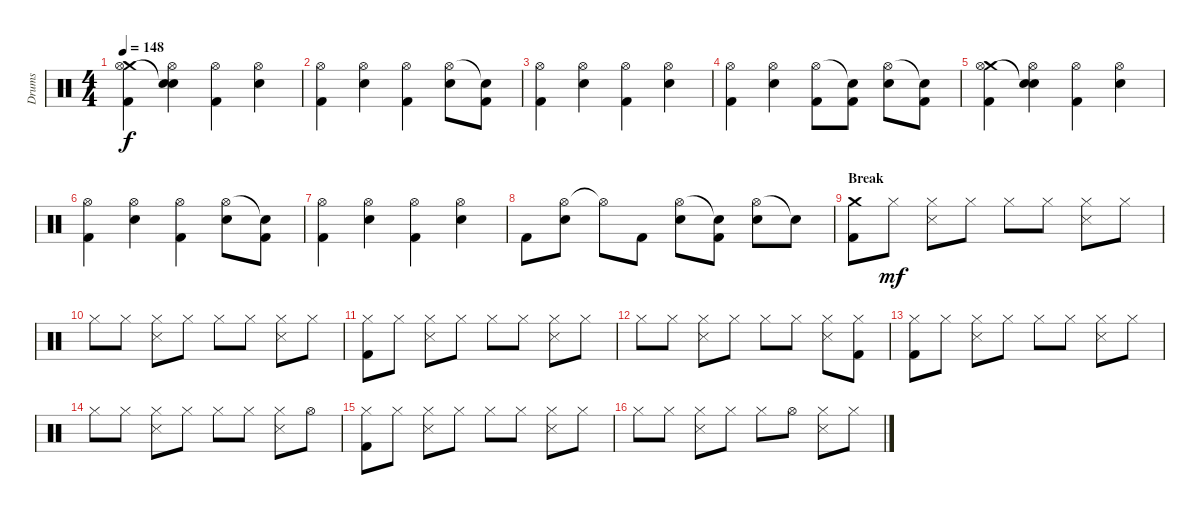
\track ("Drums" "Drums") {instrument percussion}
\staff {score}
\articulation defaults
\ts (4 4)
\tempo 148
\clef neutral
\ks c
("Crash medium (hit)" "Hi-Hat (open)" "Kick (hit) 2").4{dy f} ("Snare (hit)"{t} "Hi-Hat (open)" "Electric Snare (hit)").4 ("Hi-Hat (open)" "Kick (hit) 2").4 ("Hi-Hat (open)" "Electric Snare (hit)").4 |
("Hi-Hat (open)" "Kick (hit) 2").4 ("Hi-Hat (open)" "Electric Snare (hit)").4 ("Hi-Hat (open)" "Kick (hit) 2").4 ("Hi-Hat (open)" "Electric Snare (hit)").8 ("Snare (hit)"{t} "Kick (hit) 2").8 |
("Hi-Hat (open)" "Kick (hit) 2").4 ("Hi-Hat (open)" "Electric Snare (hit)").4 ("Hi-Hat (open)" "Kick (hit) 2").4 ("Hi-Hat (open)" "Electric Snare (hit)").4 |
("Hi-Hat (open)" "Kick (hit) 2").4 ("Hi-Hat (open)" "Electric Snare (hit)").4 ("Hi-Hat (open)" "Kick (hit) 2").8 ("Snare (hit)"{t} "Kick (hit) 2").8 ("Hi-Hat (open)" "Electric Snare (hit)").8 ("Snare (hit)"{t} "Kick (hit) 2").8 |
("Crash medium (hit)" "Hi-Hat (open)" "Kick (hit) 2").4 ("Snare (hit)"{t} "Hi-Hat (open)" "Electric Snare (hit)").4 ("Hi-Hat (open)" "Kick (hit) 2").4 ("Hi-Hat (open)" "Electric Snare (hit)").4 |
("Hi-Hat (open)" "Kick (hit) 2").4 ("Hi-Hat (open)" "Electric Snare (hit)").4 ("Hi-Hat (open)" "Kick (hit) 2").4 ("Hi-Hat (open)" "Electric Snare (hit)").8 ("Snare (hit)"{t} "Kick (hit) 2").8 |
("Hi-Hat (open)" "Kick (hit) 2").4 ("Hi-Hat (open)" "Electric Snare (hit)").4 ("Hi-Hat (open)" "Kick (hit) 2").4 ("Hi-Hat (open)" "Electric Snare (hit)").4 |
"Kick (hit) 2".8 ("Hi-Hat (open)" "Electric Snare (hit)").8 "Hi-Hat (open)"{t}.8 "Kick (hit) 2".8 ("Hi-Hat (open)" "Electric Snare (hit)").8 ("Snare (hit)"{t} "Kick (hit) 2").8 ("Hi-Hat (open)" "Electric Snare (hit)").8 "Snare (hit)"{t}.8 |
\section ("" "Break")
("Crash medium (hit)" "Kick (hit) 2").8 "Hi-Hat (closed)".8{dy mf} ("Hi-Hat (closed)" "Snare (side stick) 3").8 "Hi-Hat (closed)".8 "Hi-Hat (closed)".8 "Hi-Hat (closed)".8 ("Hi-Hat (closed)" "Snare (side stick) 3").8 "Hi-Hat (closed)".8 |
"Hi-Hat (closed)".8 "Hi-Hat (closed)".8 ("Hi-Hat (closed)" "Snare (side stick) 3").8 "Hi-Hat (closed)".8 "Hi-Hat (closed)".8 "Hi-Hat (closed)".8 ("Hi-Hat (closed)" "Snare (side stick) 3").8 "Hi-Hat (closed)".8 |
("Hi-Hat (closed)" "Kick (hit) 2").8 "Hi-Hat (closed)".8 ("Hi-Hat (closed)" "Snare (side stick) 3").8 "Hi-Hat (closed)".8 "Hi-Hat (closed)".8 "Hi-Hat (closed)".8 ("Hi-Hat (closed)" "Snare (side stick) 3").8 "Hi-Hat (closed)".8 |
"Hi-Hat (closed)".8 "Hi-Hat (closed)".8 ("Hi-Hat (closed)" "Snare (side stick) 3").8 "Hi-Hat (closed)".8 "Hi-Hat (closed)".8 "Hi-Hat (closed)".8 ("Hi-Hat (closed)" "Snare (side stick) 3").8 ("Hi-Hat (closed)" "Kick (hit) 2").8 |
("Hi-Hat (closed)" "Kick (hit) 2").8 "Hi-Hat (closed)".8 ("Hi-Hat (closed)" "Snare (side stick) 3").8 "Hi-Hat (closed)".8 "Hi-Hat (closed)".8 "Hi-Hat (closed)".8 ("Hi-Hat (closed)" "Snare (side stick) 3").8 "Hi-Hat (closed)".8 |
"Hi-Hat (closed)".8 "Hi-Hat (closed)".8 ("Hi-Hat (closed)" "Snare (side stick) 3").8 "Hi-Hat (closed)".8 "Hi-Hat (closed)".8 "Hi-Hat (closed)".8 ("Hi-Hat (closed)" "Snare (side stick) 3").8 "Hi-Hat (open)".8 |
("Hi-Hat (closed)" "Kick (hit) 2").8 "Hi-Hat (closed)".8 ("Hi-Hat (closed)" "Snare (side stick) 3").8 "Hi-Hat (closed)".8 "Hi-Hat (closed)".8 "Hi-Hat (closed)".8 ("Hi-Hat (closed)" "Snare (side stick) 3").8 "Hi-Hat (closed)".8 |
"Hi-Hat (closed)".8 "Hi-Hat (closed)".8 ("Hi-Hat (closed)" "Snare (side stick) 3").8 "Hi-Hat (closed)".8 "Hi-Hat (closed)".8 "Hi-Hat (open)".8 ("Hi-Hat (closed)" "Snare (side stick) 3").8 "Hi-Hat (closed)".8
